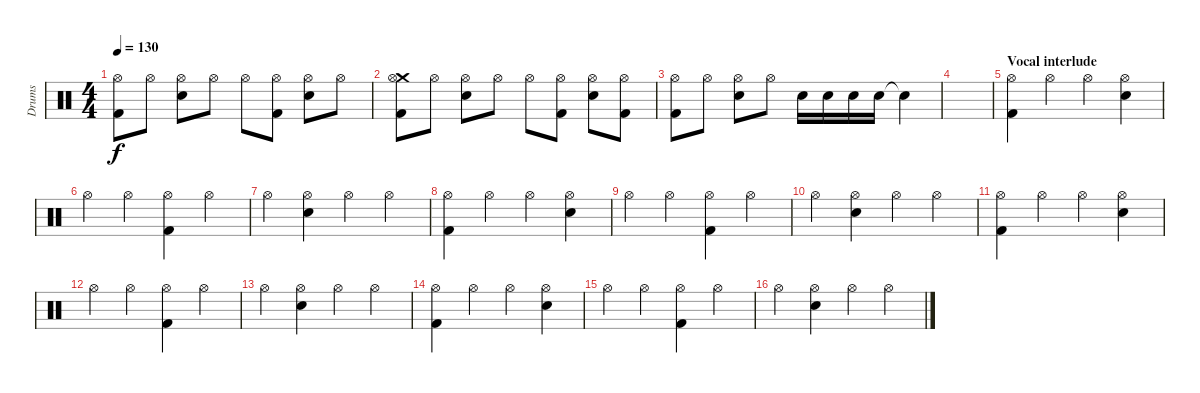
\track ("Drums" "Drums") {instrument percussion}
\staff {score}
\articulation defaults
\ts (4 4)
\tempo 130
\clef neutral
\ks c
("Hi-Hat (open)" "Kick (hit) 2").8{dy f} "Hi-Hat (open)".8 ("Hi-Hat (open)" "Electric Snare (hit)").8 "Hi-Hat (open)".8 "Hi-Hat (open)".8 ("Hi-Hat (open)" "Kick (hit) 2").8 ("Hi-Hat (open)" "Electric Snare (hit)").8 "Hi-Hat (open)".8 |
("Crash medium (hit)" "Hi-Hat (open)" "Kick (hit) 2").8 "Hi-Hat (open)".8 ("Hi-Hat (open)" "Electric Snare (hit)").8 "Hi-Hat (open)".8 "Hi-Hat (open)".8 ("Hi-Hat (open)" "Kick (hit) 2").8 ("Hi-Hat (open)" "Electric Snare (hit)").8 ("Hi-Hat (open)" "Kick (hit) 2").8 |
("Hi-Hat (open)" "Kick (hit) 2").8 "Hi-Hat (open)".8 ("Hi-Hat (open)" "Electric Snare (hit)").8 "Hi-Hat (open)".8 "Electric Snare (hit)".16 "Electric Snare (hit)".16 "Electric Snare (hit)".16 "Electric Snare (hit)".16 "Snare (hit)"{t}.4 |
|
\section ("" "Vocal interlude")
("Hi-Hat (open)" "Kick (hit) 2").4 "Hi-Hat (open)".4 "Hi-Hat (open)".4 ("Hi-Hat (open)" "Electric Snare (hit)").4 |
"Hi-Hat (open)".4 "Hi-Hat (open)".4 ("Hi-Hat (open)" "Kick (hit) 2").4 "Hi-Hat (open)".4 |
"Hi-Hat (open)".4 ("Hi-Hat (open)" "Electric Snare (hit)").4 "Hi-Hat (open)".4 "Hi-Hat (open)".4 |
("Hi-Hat (open)" "Kick (hit) 2").4 "Hi-Hat (open)".4 "Hi-Hat (open)".4 ("Hi-Hat (open)" "Electric Snare (hit)").4 |
"Hi-Hat (open)".4 "Hi-Hat (open)".4 ("Hi-Hat (open)" "Kick (hit) 2").4 "Hi-Hat (open)".4 |
"Hi-Hat (open)".4 ("Hi-Hat (open)" "Electric Snare (hit)").4 "Hi-Hat (open)".4 "Hi-Hat (open)".4 |
("Hi-Hat (open)" "Kick (hit) 2").4 "Hi-Hat (open)".4 "Hi-Hat (open)".4 ("Hi-Hat (open)" "Electric Snare (hit)").4 |
"Hi-Hat (open)".4 "Hi-Hat (open)".4 ("Hi-Hat (open)" "Kick (hit) 2").4 "Hi-Hat (open)".4 |
"Hi-Hat (open)".4 ("Hi-Hat (open)" "Electric Snare (hit)").4 "Hi-Hat (open)".4 "Hi-Hat (open)".4 |
("Hi-Hat (open)" "Kick (hit) 2").4 "Hi-Hat (open)".4 "Hi-Hat (open)".4 ("Hi-Hat (open)" "Electric Snare (hit)").4 |
"Hi-Hat (open)".4 "Hi-Hat (open)".4 ("Hi-Hat (open)" "Kick (hit) 2").4 "Hi-Hat (open)".4 |
"Hi-Hat (open)".4 ("Hi-Hat (open)" "Electric Snare (hit)").4 "Hi-Hat (open)".4 "Hi-Hat (open)".4
